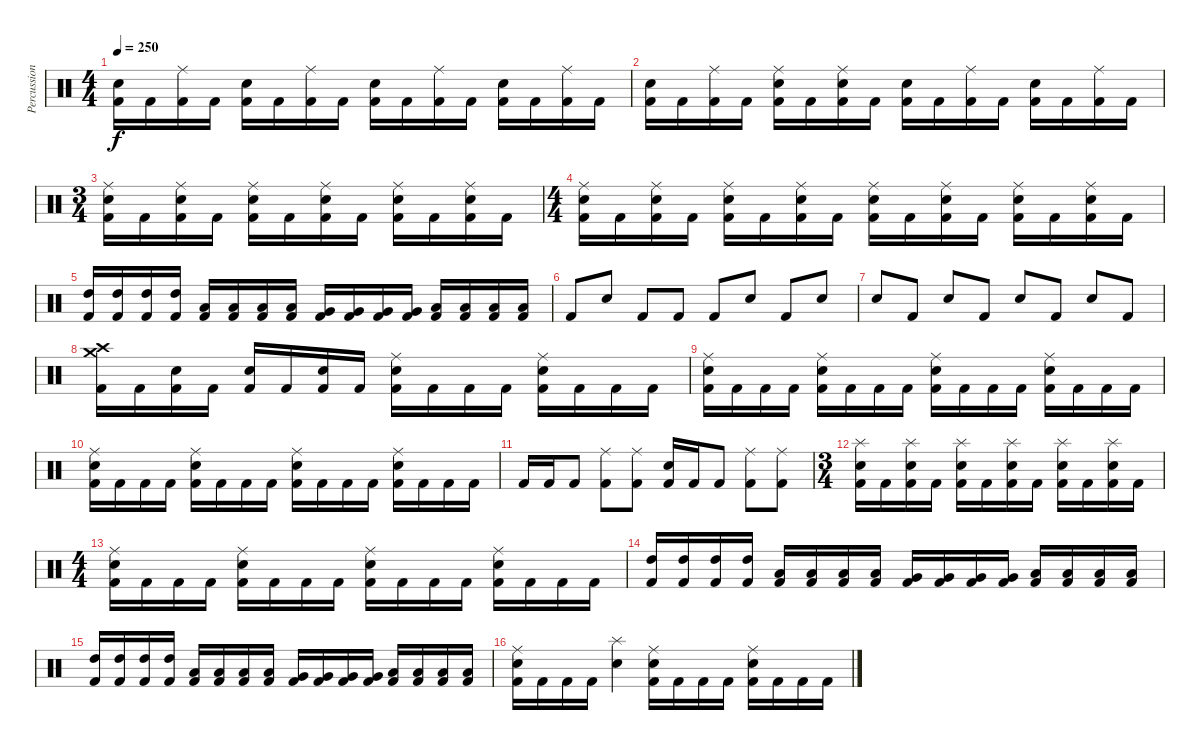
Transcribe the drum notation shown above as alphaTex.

\track ("Percussion" "Percussion") {instrument percussion}
\staff {score}
\articulation defaults
\ts (4 4)
\tempo 250
\clef neutral
\ks c
("Electric Snare (hit)" "Kick (hit) 2").16{dy f} "Kick (hit) 2".16 ("Ride (middle)" "Kick (hit) 2").16 "Kick (hit) 2".16 ("Electric Snare (hit)" "Kick (hit) 2").16 "Kick (hit) 2".16 ("Ride (middle)" "Kick (hit) 2").16 "Kick (hit) 2".16 ("Electric Snare (hit)" "Kick (hit) 2").16 "Kick (hit) 2".16 ("Ride (middle)" "Kick (hit) 2").16 "Kick (hit) 2".16 ("Electric Snare (hit)" "Kick (hit) 2").16 "Kick (hit) 2".16 ("Ride (middle)" "Kick (hit) 2").16 "Kick (hit) 2".16 |
("Electric Snare (hit)" "Kick (hit) 2").16 "Kick (hit) 2".16 ("Ride (middle)" "Kick (hit) 2").16 "Kick (hit) 2".16 ("Ride (middle)" "Electric Snare (hit)" "Kick (hit) 2").16 "Kick (hit) 2".16 ("Ride (middle)" "Electric Snare (hit)" "Kick (hit) 2").16 "Kick (hit) 2".16 ("Electric Snare (hit)" "Kick (hit) 2").16 "Kick (hit) 2".16 ("Ride (middle)" "Kick (hit) 2").16 "Kick (hit) 2".16 ("Electric Snare (hit)" "Kick (hit) 2").16 "Kick (hit) 2".16 ("Ride (middle)" "Kick (hit) 2").16 "Kick (hit) 2".16 |
\ts (3 4)
("Ride (middle)" "Electric Snare (hit)" "Kick (hit) 2").16 "Kick (hit) 2".16 ("Ride (middle)" "Electric Snare (hit)" "Kick (hit) 2").16 "Kick (hit) 2".16 ("Ride (middle)" "Electric Snare (hit)" "Kick (hit) 2").16 "Kick (hit) 2".16 ("Ride (middle)" "Electric Snare (hit)" "Kick (hit) 2").16 "Kick (hit) 2".16 ("Ride (middle)" "Electric Snare (hit)" "Kick (hit) 2").16 "Kick (hit) 2".16 ("Ride (middle)" "Electric Snare (hit)" "Kick (hit) 2").16 "Kick (hit) 2".16 |
\ts (4 4)
("Ride (middle)" "Electric Snare (hit)" "Kick (hit) 2").16 "Kick (hit) 2".16 ("Ride (middle)" "Electric Snare (hit)" "Kick (hit) 2").16 "Kick (hit) 2".16 ("Ride (middle)" "Electric Snare (hit)" "Kick (hit) 2").16 "Kick (hit) 2".16 ("Ride (middle)" "Electric Snare (hit)" "Kick (hit) 2").16 "Kick (hit) 2".16 ("Ride (middle)" "Electric Snare (hit)" "Kick (hit) 2").16 "Kick (hit) 2".16 ("Ride (middle)" "Electric Snare (hit)" "Kick (hit) 2").16 "Kick (hit) 2".16 ("Ride (middle)" "Electric Snare (hit)" "Kick (hit) 2").16 "Kick (hit) 2".16 ("Ride (middle)" "Electric Snare (hit)" "Kick (hit) 2").16 "Kick (hit) 2".16 |
("High Tom (hit)" "Kick (hit) 2").16 ("High Tom (hit)" "Kick (hit) 2").16 ("High Tom (hit)" "Kick (hit) 2").16 ("High Tom (hit)" "Kick (hit) 2").16 ("Low Tom (hit)" "Kick (hit) 2").16 ("Low Tom (hit)" "Kick (hit) 2").16 ("Low Tom (hit)" "Kick (hit) 2").16 ("Low Tom (hit)" "Kick (hit) 2").16 ("Very Low Tom (hit)" "Kick (hit) 2").16 ("Very Low Tom (hit)" "Kick (hit) 2").16 ("Very Low Tom (hit)" "Kick (hit) 2").16 ("Very Low Tom (hit)" "Kick (hit) 2").16 ("Low Floor Tom (hit)" "Kick (hit) 2").16 ("Low Floor Tom (hit)" "Kick (hit) 2").16 ("Low Floor Tom (hit)" "Kick (hit) 2").16 ("Low Floor Tom (hit)" "Kick (hit) 2").16 |
"Kick (hit) 2".8 "Electric Snare (hit)".8 "Kick (hit) 2".8 "Kick (hit) 2".8 "Kick (hit) 2".8 "Electric Snare (hit)".8 "Kick (hit) 2".8 "Electric Snare (hit)".8 |
"Electric Snare (hit)".8 "Kick (hit) 2".8 "Electric Snare (hit)".8 "Kick (hit) 2".8 "Electric Snare (hit)".8 "Kick (hit) 2".8 "Electric Snare (hit)".8 "Kick (hit) 2".8 |
("Crash high (hit)" "Crash medium (hit)" "Kick (hit) 2").16 "Kick (hit) 2".16 ("Electric Snare (hit)" "Kick (hit) 2").16 "Kick (hit) 2".16 ("Electric Snare (hit)" "Kick (hit) 2").16 "Kick (hit) 2".16 ("Electric Snare (hit)" "Kick (hit) 2").16 "Kick (hit) 2".16 ("Ride (middle)" "Electric Snare (hit)" "Kick (hit) 2").16 "Kick (hit) 2".16 "Kick (hit) 2".16 "Kick (hit) 2".16 ("Ride (middle)" "Electric Snare (hit)" "Kick (hit) 2").16 "Kick (hit) 2".16 "Kick (hit) 2".16 "Kick (hit) 2".16 |
("Ride (middle)" "Electric Snare (hit)" "Kick (hit) 2").16 "Kick (hit) 2".16 "Kick (hit) 2".16 "Kick (hit) 2".16 ("Ride (middle)" "Electric Snare (hit)" "Kick (hit) 2").16 "Kick (hit) 2".16 "Kick (hit) 2".16 "Kick (hit) 2".16 ("Ride (middle)" "Electric Snare (hit)" "Kick (hit) 2").16 "Kick (hit) 2".16 "Kick (hit) 2".16 "Kick (hit) 2".16 ("Ride (middle)" "Electric Snare (hit)" "Kick (hit) 2").16 "Kick (hit) 2".16 "Kick (hit) 2".16 "Kick (hit) 2".16 |
("Ride (middle)" "Electric Snare (hit)" "Kick (hit) 2").16 "Kick (hit) 2".16 "Kick (hit) 2".16 "Kick (hit) 2".16 ("Ride (middle)" "Electric Snare (hit)" "Kick (hit) 2").16 "Kick (hit) 2".16 "Kick (hit) 2".16 "Kick (hit) 2".16 ("Ride (middle)" "Electric Snare (hit)" "Kick (hit) 2").16 "Kick (hit) 2".16 "Kick (hit) 2".16 "Kick (hit) 2".16 ("Ride (middle)" "Electric Snare (hit)" "Kick (hit) 2").16 "Kick (hit) 2".16 "Kick (hit) 2".16 "Kick (hit) 2".16 |
"Kick (hit) 2".16 "Kick (hit) 2".16 "Kick (hit) 2".8 ("Ride (middle)" "Kick (hit) 2").8 ("Ride (middle)" "Kick (hit) 2").8 ("Electric Snare (hit)" "Kick (hit) 2").16 "Kick (hit) 2".16 "Kick (hit) 2".8 ("Ride (middle)" "Kick (hit) 2").8 ("Ride (middle)" "Kick (hit) 2").8 |
\ts (3 4)
("Splash (hit)" "Electric Snare (hit)" "Kick (hit) 2").16 "Kick (hit) 2".16 ("Splash (hit)" "Electric Snare (hit)" "Kick (hit) 2").16 "Kick (hit) 2".16 ("Splash (hit)" "Electric Snare (hit)" "Kick (hit) 2").16 "Kick (hit) 2".16 ("Splash (hit)" "Electric Snare (hit)" "Kick (hit) 2").16 "Kick (hit) 2".16 ("Splash (hit)" "Electric Snare (hit)" "Kick (hit) 2").16 "Kick (hit) 2".16 ("Splash (hit)" "Electric Snare (hit)" "Kick (hit) 2").16 "Kick (hit) 2".16 |
\ts (4 4)
("Ride (middle)" "Electric Snare (hit)" "Kick (hit) 2").16 "Kick (hit) 2".16 "Kick (hit) 2".16 "Kick (hit) 2".16 ("Ride (middle)" "Electric Snare (hit)" "Kick (hit) 2").16 "Kick (hit) 2".16 "Kick (hit) 2".16 "Kick (hit) 2".16 ("Ride (middle)" "Electric Snare (hit)" "Kick (hit) 2").16 "Kick (hit) 2".16 "Kick (hit) 2".16 "Kick (hit) 2".16 ("Ride (middle)" "Electric Snare (hit)" "Kick (hit) 2").16 "Kick (hit) 2".16 "Kick (hit) 2".16 "Kick (hit) 2".16 |
("High Tom (hit)" "Kick (hit) 2").16 ("High Tom (hit)" "Kick (hit) 2").16 ("High Tom (hit)" "Kick (hit) 2").16 ("High Tom (hit)" "Kick (hit) 2").16 ("Low Tom (hit)" "Kick (hit) 2").16 ("Low Tom (hit)" "Kick (hit) 2").16 ("Low Tom (hit)" "Kick (hit) 2").16 ("Low Tom (hit)" "Kick (hit) 2").16 ("Very Low Tom (hit)" "Kick (hit) 2").16 ("Very Low Tom (hit)" "Kick (hit) 2").16 ("Very Low Tom (hit)" "Kick (hit) 2").16 ("Very Low Tom (hit)" "Kick (hit) 2").16 ("Low Floor Tom (hit)" "Kick (hit) 2").16 ("Low Floor Tom (hit)" "Kick (hit) 2").16 ("Low Floor Tom (hit)" "Kick (hit) 2").16 ("Low Floor Tom (hit)" "Kick (hit) 2").16 |
("High Tom (hit)" "Kick (hit) 2").16 ("High Tom (hit)" "Kick (hit) 2").16 ("High Tom (hit)" "Kick (hit) 2").16 ("High Tom (hit)" "Kick (hit) 2").16 ("Low Tom (hit)" "Kick (hit) 2").16 ("Low Tom (hit)" "Kick (hit) 2").16 ("Low Tom (hit)" "Kick (hit) 2").16 ("Low Tom (hit)" "Kick (hit) 2").16 ("Very Low Tom (hit)" "Kick (hit) 2").16 ("Very Low Tom (hit)" "Kick (hit) 2").16 ("Very Low Tom (hit)" "Kick (hit) 2").16 ("Very Low Tom (hit)" "Kick (hit) 2").16 ("Low Floor Tom (hit)" "Kick (hit) 2").16 ("Low Floor Tom (hit)" "Kick (hit) 2").16 ("Low Floor Tom (hit)" "Kick (hit) 2").16 ("Low Floor Tom (hit)" "Kick (hit) 2").16 |
("Ride (middle)" "Electric Snare (hit)" "Kick (hit) 2").16 "Kick (hit) 2".16 "Kick (hit) 2".16 "Kick (hit) 2".16 ("Splash (hit)" "Electric Snare (hit)").4 ("Ride (middle)" "Electric Snare (hit)" "Kick (hit) 2").16 "Kick (hit) 2".16 "Kick (hit) 2".16 "Kick (hit) 2".16 ("Ride (middle)" "Electric Snare (hit)" "Kick (hit) 2").16 "Kick (hit) 2".16 "Kick (hit) 2".16 "Kick (hit) 2".16
